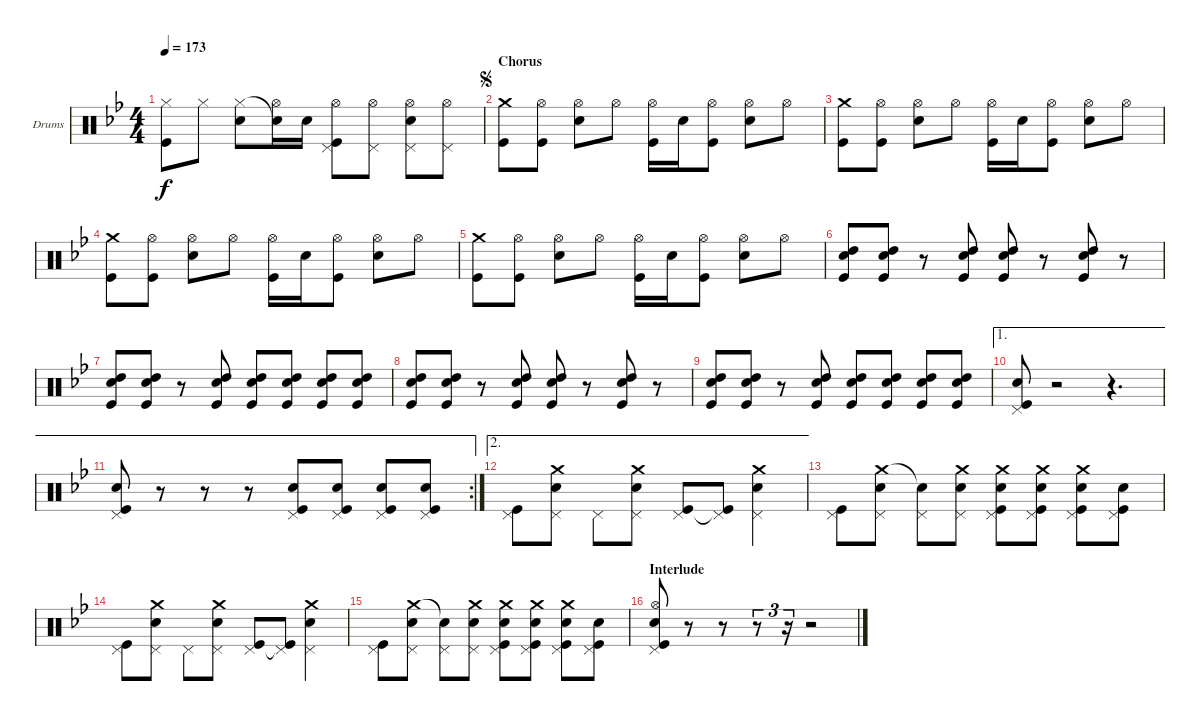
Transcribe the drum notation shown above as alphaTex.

\defaultSystemsLayout 4
\bracketExtendMode groupsimilarinstruments
\firstSystemTrackNameOrientation horizontal
\otherSystemsTrackNameOrientation horizontal
\track ("Drumkit" "Drums") {instrument percussion}
\staff {score}
\articulation defaults
\ts (4 4)
\tempo 173
\clef neutral
\ks bb
("Hi-Hat (closed)" "Kick (hit)").8{dy f} "Hi-Hat (closed)".8 ("Hi-Hat (closed)" "Snare (hit) 2").8 ("Snare (hit) 2"{t} "Hi-Hat (open)").16 "Snare (hit) 2".16 ("Hi-Hat (open)" "Pedal Hi-Hat (hit)" "Kick (hit)").8 ("Hi-Hat (open)" "Pedal Hi-Hat (hit)").8 ("Hi-Hat (open)" "Pedal Hi-Hat (hit)" "Snare (hit) 2").8 ("Hi-Hat (open)" "Pedal Hi-Hat (hit)").8 |
\section ("" "Chorus")
\jump segno
("Crash medium (hit)" "Kick (hit)").8 ("Hi-Hat (open)" "Kick (hit)").8 ("Snare (hit) 2" "Hi-Hat (open)").8 "Hi-Hat (open)".8 ("Hi-Hat (open)" "Kick (hit)").16 "Snare (hit) 2".16 ("Kick (hit)" "Hi-Hat (open)").8 ("Hi-Hat (open)" "Snare (hit) 2").8 "Hi-Hat (open)".8 |
("Crash medium (hit)" "Kick (hit)").8 ("Hi-Hat (open)" "Kick (hit)").8 ("Snare (hit) 2" "Hi-Hat (open)").8 "Hi-Hat (open)".8 ("Hi-Hat (open)" "Kick (hit)").16 "Snare (hit) 2".16 ("Kick (hit)" "Hi-Hat (open)").8 ("Hi-Hat (open)" "Snare (hit) 2").8 "Hi-Hat (open)".8 |
("Crash medium (hit)" "Kick (hit)").8 ("Hi-Hat (open)" "Kick (hit)").8 ("Snare (hit) 2" "Hi-Hat (open)").8 "Hi-Hat (open)".8 ("Hi-Hat (open)" "Kick (hit)").16 "Snare (hit) 2".16 ("Kick (hit)" "Hi-Hat (open)").8 ("Hi-Hat (open)" "Snare (hit) 2").8 "Hi-Hat (open)".8 |
("Crash medium (hit)" "Kick (hit)").8 ("Hi-Hat (open)" "Kick (hit)").8 ("Snare (hit) 2" "Hi-Hat (open)").8 "Hi-Hat (open)".8 ("Hi-Hat (open)" "Kick (hit)").16 "Snare (hit) 2".16 ("Kick (hit)" "Hi-Hat (open)").8 ("Hi-Hat (open)" "Snare (hit) 2").8 "Hi-Hat (open)".8 |
("High Tom (hit)" "Snare (hit) 2" "Kick (hit)").8 ("High Tom (hit)" "Snare (hit) 2" "Kick (hit)").8 r.8 ("High Tom (hit)" "Snare (hit) 2" "Kick (hit)").8 ("High Tom (hit)" "Snare (hit) 2" "Kick (hit)").8 r.8 ("High Tom (hit)" "Snare (hit) 2" "Kick (hit)").8 r.8 |
("High Tom (hit)" "Snare (hit) 2" "Kick (hit)").8 ("High Tom (hit)" "Snare (hit) 2" "Kick (hit)").8 r.8 ("High Tom (hit)" "Snare (hit) 2" "Kick (hit)").8 ("High Tom (hit)" "Snare (hit) 2" "Kick (hit)").8 ("High Tom (hit)" "Snare (hit) 2" "Kick (hit)").8 ("High Tom (hit)" "Snare (hit) 2" "Kick (hit)").8 ("High Tom (hit)" "Snare (hit) 2" "Kick (hit)").8 |
("High Tom (hit)" "Snare (hit) 2" "Kick (hit)").8 ("High Tom (hit)" "Snare (hit) 2" "Kick (hit)").8 r.8 ("High Tom (hit)" "Snare (hit) 2" "Kick (hit)").8 ("High Tom (hit)" "Snare (hit) 2" "Kick (hit)").8 r.8 ("High Tom (hit)" "Snare (hit) 2" "Kick (hit)").8 r.8 |
("High Tom (hit)" "Snare (hit) 2" "Kick (hit)").8 ("High Tom (hit)" "Snare (hit) 2" "Kick (hit)").8 r.8 ("High Tom (hit)" "Snare (hit) 2" "Kick (hit)").8 ("High Tom (hit)" "Snare (hit) 2" "Kick (hit)").8 ("High Tom (hit)" "Snare (hit) 2" "Kick (hit)").8 ("High Tom (hit)" "Snare (hit) 2" "Kick (hit)").8 ("High Tom (hit)" "Snare (hit) 2" "Kick (hit)").8 |
\ae 1
("Pedal Hi-Hat (hit)" "Snare (hit) 2" "Kick (hit)").8 r.2 r.4{d} |
\ae 1
\rc 2
("Pedal Hi-Hat (hit)" "Snare (hit) 2" "Kick (hit)").8 r.8 r.8 r.8 ("Pedal Hi-Hat (hit)" "Kick (hit)" "Snare (hit) 2").8 ("Pedal Hi-Hat (hit)" "Kick (hit)" "Snare (hit) 2").8 ("Pedal Hi-Hat (hit)" "Kick (hit)" "Snare (hit) 2").8 ("Pedal Hi-Hat (hit)" "Kick (hit)" "Snare (hit) 2").8 |
\ae 2
("Kick (hit)" "Pedal Hi-Hat (hit)").8 ("Crash medium (hit)" "Pedal Hi-Hat (hit)" "Snare (hit) 2").8 "Pedal Hi-Hat (hit)".8 ("Crash medium (hit)" "Pedal Hi-Hat (hit)" "Snare (hit) 2").8 ("Kick (hit)" "Pedal Hi-Hat (hit)").8 ("Kick (hit)"{t} "Pedal Hi-Hat (hit)").8 ("Crash medium (hit)" "Pedal Hi-Hat (hit)" "Snare (hit) 2").4 |
("Kick (hit)" "Pedal Hi-Hat (hit)").8 ("Pedal Hi-Hat (hit)" "Crash medium (hit)" "Snare (hit) 2").8 ("Pedal Hi-Hat (hit)" "Snare (hit) 2"{t}).8 ("Snare (hit) 2" "Pedal Hi-Hat (hit)" "Crash medium (hit)").8 ("Snare (hit) 2" "Kick (hit)" "Pedal Hi-Hat (hit)" "Crash medium (hit)").8 ("Snare (hit) 2" "Kick (hit)" "Pedal Hi-Hat (hit)" "Crash medium (hit)").8 ("Snare (hit) 2" "Kick (hit)" "Pedal Hi-Hat (hit)" "Crash medium (hit)").8 ("Pedal Hi-Hat (hit)" "Snare (hit) 2" "Kick (hit)").8 |
("Kick (hit)" "Pedal Hi-Hat (hit)").8 ("Crash medium (hit)" "Pedal Hi-Hat (hit)" "Snare (hit) 2").8 "Pedal Hi-Hat (hit)".8 ("Crash medium (hit)" "Pedal Hi-Hat (hit)" "Snare (hit) 2").8 ("Kick (hit)" "Pedal Hi-Hat (hit)").8 ("Kick (hit)"{t} "Pedal Hi-Hat (hit)").8 ("Crash medium (hit)" "Pedal Hi-Hat (hit)" "Snare (hit) 2").4 |
("Kick (hit)" "Pedal Hi-Hat (hit)").8 ("Pedal Hi-Hat (hit)" "Crash medium (hit)" "Snare (hit) 2").8 ("Pedal Hi-Hat (hit)" "Snare (hit) 2"{t}).8 ("Snare (hit) 2" "Pedal Hi-Hat (hit)" "Crash medium (hit)").8 ("Snare (hit) 2" "Kick (hit)" "Pedal Hi-Hat (hit)" "Crash medium (hit)").8 ("Snare (hit) 2" "Kick (hit)" "Pedal Hi-Hat (hit)" "Crash medium (hit)").8 ("Snare (hit) 2" "Kick (hit)" "Pedal Hi-Hat (hit)" "Crash medium (hit)").8 ("Pedal Hi-Hat (hit)" "Snare (hit) 2" "Kick (hit)").8 |
\section ("" "Interlude")
("Hi-Hat (open)" "Pedal Hi-Hat (hit)" "Snare (hit) 2" "Kick (hit)").8 r.8 r.8 r.8{tu (3 2)} r.16{tu (3 2)} r.2
